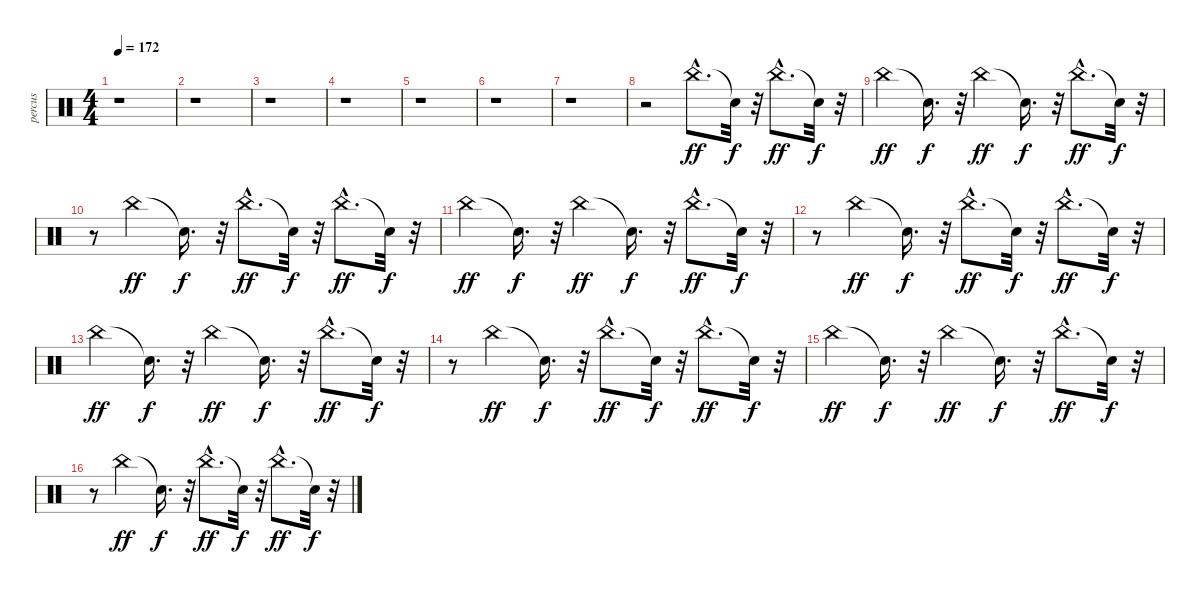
\track ("percus" "percus") {instrument percussion}
\staff {score}
\articulation defaults
\ts (4 4)
\tempo 172
\clef neutral
\ks c
r.1{dy ff} |
r.1 |
r.1 |
r.1 |
r.1 |
r.1 |
r.1 |
r.2 "China (hit)"{hac}.8{d} "Snare (hit)"{t}.32{dy f} r.32 "China (hit)"{hac}.8{d dy ff} "Snare (hit)"{t}.32{dy f} r.32 |
"China (hit)".4{dy ff} "Snare (hit)"{t}.16{d dy f} r.32 "China (hit)".4{dy ff} "Snare (hit)"{t}.16{d dy f} r.32 "China (hit)"{hac}.8{d dy ff} "Snare (hit)"{t}.32{dy f} r.32 |
r.8 "China (hit)".4{dy ff} "Snare (hit)"{t}.16{d dy f} r.32 "China (hit)"{hac}.8{d dy ff} "Snare (hit)"{t}.32{dy f} r.32 "China (hit)"{hac}.8{d dy ff} "Snare (hit)"{t}.32{dy f} r.32 |
"China (hit)".4{dy ff} "Snare (hit)"{t}.16{d dy f} r.32 "China (hit)".4{dy ff} "Snare (hit)"{t}.16{d dy f} r.32 "China (hit)"{hac}.8{d dy ff} "Snare (hit)"{t}.32{dy f} r.32 |
r.8 "China (hit)".4{dy ff} "Snare (hit)"{t}.16{d dy f} r.32 "China (hit)"{hac}.8{d dy ff} "Snare (hit)"{t}.32{dy f} r.32 "China (hit)"{hac}.8{d dy ff} "Snare (hit)"{t}.32{dy f} r.32 |
"China (hit)".4{dy ff} "Snare (hit)"{t}.16{d dy f} r.32 "China (hit)".4{dy ff} "Snare (hit)"{t}.16{d dy f} r.32 "China (hit)"{hac}.8{d dy ff} "Snare (hit)"{t}.32{dy f} r.32 |
r.8 "China (hit)".4{dy ff} "Snare (hit)"{t}.16{d dy f} r.32 "China (hit)"{hac}.8{d dy ff} "Snare (hit)"{t}.32{dy f} r.32 "China (hit)"{hac}.8{d dy ff} "Snare (hit)"{t}.32{dy f} r.32 |
"China (hit)".4{dy ff} "Snare (hit)"{t}.16{d dy f} r.32 "China (hit)".4{dy ff} "Snare (hit)"{t}.16{d dy f} r.32 "China (hit)"{hac}.8{d dy ff} "Snare (hit)"{t}.32{dy f} r.32 |
r.8 "China (hit)".4{dy ff} "Snare (hit)"{t}.16{d dy f} r.32 "China (hit)"{hac}.8{d dy ff} "Snare (hit)"{t}.32{dy f} r.32 "China (hit)"{hac}.8{d dy ff} "Snare (hit)"{t}.32{dy f} r.32
